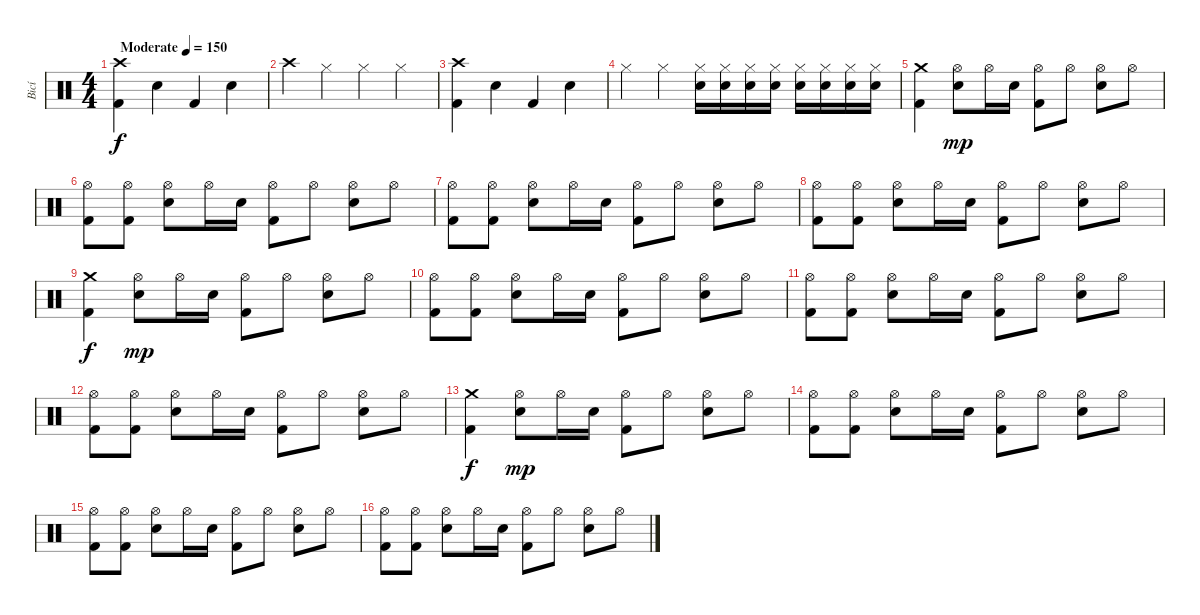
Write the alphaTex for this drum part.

\track ("Bicí" "Bicí") {instrument percussion}
\staff {score}
\articulation defaults
\ts (4 4)
\tempo (150 "Moderate")
\clef neutral
\ks c
("Crash high (hit)" "Kick (hit) 2").4{dy f} "Snare (hit) 2".4 "Kick (hit) 2".4 "Snare (hit) 2".4 |
"Crash high (hit)".4 "Hi-Hat (closed)".4 "Hi-Hat (closed)".4 "Hi-Hat (closed)".4 |
("Crash high (hit)" "Kick (hit) 2").4 "Snare (hit) 2".4 "Kick (hit) 2".4 "Snare (hit) 2".4 |
"Hi-Hat (closed)".4 "Hi-Hat (closed)".4 ("Snare (hit) 2" "Hi-Hat (closed)").16 ("Snare (hit) 2" "Hi-Hat (closed)").16 ("Snare (hit) 2" "Hi-Hat (closed)").16 ("Snare (hit) 2" "Hi-Hat (closed)").16 ("Snare (hit) 2" "Hi-Hat (closed)").16 ("Snare (hit) 2" "Hi-Hat (closed)").16 ("Snare (hit) 2" "Hi-Hat (closed)").16 ("Snare (hit) 2" "Hi-Hat (closed)").16 |
("Crash medium (hit)" "Kick (hit) 2").4 ("Hi-Hat (open)" "Electric Snare (hit)").8{dy mp} "Hi-Hat (open)".16 "Electric Snare (hit)".16 ("Hi-Hat (open)" "Kick (hit) 2").8 "Hi-Hat (open)".8 ("Hi-Hat (open)" "Electric Snare (hit)").8 "Hi-Hat (open)".8 |
("Hi-Hat (open)" "Kick (hit) 2").8 ("Hi-Hat (open)" "Kick (hit) 2").8 ("Hi-Hat (open)" "Electric Snare (hit)").8 "Hi-Hat (open)".16 "Electric Snare (hit)".16 ("Hi-Hat (open)" "Kick (hit) 2").8 "Hi-Hat (open)".8 ("Hi-Hat (open)" "Electric Snare (hit)").8 "Hi-Hat (open)".8 |
("Hi-Hat (open)" "Kick (hit) 2").8 ("Hi-Hat (open)" "Kick (hit) 2").8 ("Hi-Hat (open)" "Electric Snare (hit)").8 "Hi-Hat (open)".16 "Electric Snare (hit)".16 ("Hi-Hat (open)" "Kick (hit) 2").8 "Hi-Hat (open)".8 ("Hi-Hat (open)" "Electric Snare (hit)").8 "Hi-Hat (open)".8 |
("Hi-Hat (open)" "Kick (hit) 2").8 ("Hi-Hat (open)" "Kick (hit) 2").8 ("Hi-Hat (open)" "Electric Snare (hit)").8 "Hi-Hat (open)".16 "Electric Snare (hit)".16 ("Hi-Hat (open)" "Kick (hit) 2").8 "Hi-Hat (open)".8 ("Hi-Hat (open)" "Electric Snare (hit)").8 "Hi-Hat (open)".8 |
("Crash medium (hit)" "Kick (hit) 2").4{dy f} ("Hi-Hat (open)" "Electric Snare (hit)").8{dy mp} "Hi-Hat (open)".16 "Electric Snare (hit)".16 ("Hi-Hat (open)" "Kick (hit) 2").8 "Hi-Hat (open)".8 ("Hi-Hat (open)" "Electric Snare (hit)").8 "Hi-Hat (open)".8 |
("Hi-Hat (open)" "Kick (hit) 2").8 ("Hi-Hat (open)" "Kick (hit) 2").8 ("Hi-Hat (open)" "Electric Snare (hit)").8 "Hi-Hat (open)".16 "Electric Snare (hit)".16 ("Hi-Hat (open)" "Kick (hit) 2").8 "Hi-Hat (open)".8 ("Hi-Hat (open)" "Electric Snare (hit)").8 "Hi-Hat (open)".8 |
("Hi-Hat (open)" "Kick (hit) 2").8 ("Hi-Hat (open)" "Kick (hit) 2").8 ("Hi-Hat (open)" "Electric Snare (hit)").8 "Hi-Hat (open)".16 "Electric Snare (hit)".16 ("Hi-Hat (open)" "Kick (hit) 2").8 "Hi-Hat (open)".8 ("Hi-Hat (open)" "Electric Snare (hit)").8 "Hi-Hat (open)".8 |
("Hi-Hat (open)" "Kick (hit) 2").8 ("Hi-Hat (open)" "Kick (hit) 2").8 ("Hi-Hat (open)" "Electric Snare (hit)").8 "Hi-Hat (open)".16 "Electric Snare (hit)".16 ("Hi-Hat (open)" "Kick (hit) 2").8 "Hi-Hat (open)".8 ("Hi-Hat (open)" "Electric Snare (hit)").8 "Hi-Hat (open)".8 |
("Crash medium (hit)" "Kick (hit) 2").4{dy f} ("Hi-Hat (open)" "Electric Snare (hit)").8{dy mp} "Hi-Hat (open)".16 "Electric Snare (hit)".16 ("Hi-Hat (open)" "Kick (hit) 2").8 "Hi-Hat (open)".8 ("Hi-Hat (open)" "Electric Snare (hit)").8 "Hi-Hat (open)".8 |
("Hi-Hat (open)" "Kick (hit) 2").8 ("Hi-Hat (open)" "Kick (hit) 2").8 ("Hi-Hat (open)" "Electric Snare (hit)").8 "Hi-Hat (open)".16 "Electric Snare (hit)".16 ("Hi-Hat (open)" "Kick (hit) 2").8 "Hi-Hat (open)".8 ("Hi-Hat (open)" "Electric Snare (hit)").8 "Hi-Hat (open)".8 |
("Hi-Hat (open)" "Kick (hit) 2").8 ("Hi-Hat (open)" "Kick (hit) 2").8 ("Hi-Hat (open)" "Electric Snare (hit)").8 "Hi-Hat (open)".16 "Electric Snare (hit)".16 ("Hi-Hat (open)" "Kick (hit) 2").8 "Hi-Hat (open)".8 ("Hi-Hat (open)" "Electric Snare (hit)").8 "Hi-Hat (open)".8 |
("Hi-Hat (open)" "Kick (hit) 2").8 ("Hi-Hat (open)" "Kick (hit) 2").8 ("Hi-Hat (open)" "Electric Snare (hit)").8 "Hi-Hat (open)".16 "Electric Snare (hit)".16 ("Hi-Hat (open)" "Kick (hit) 2").8 "Hi-Hat (open)".8 ("Hi-Hat (open)" "Electric Snare (hit)").8 "Hi-Hat (open)".8
